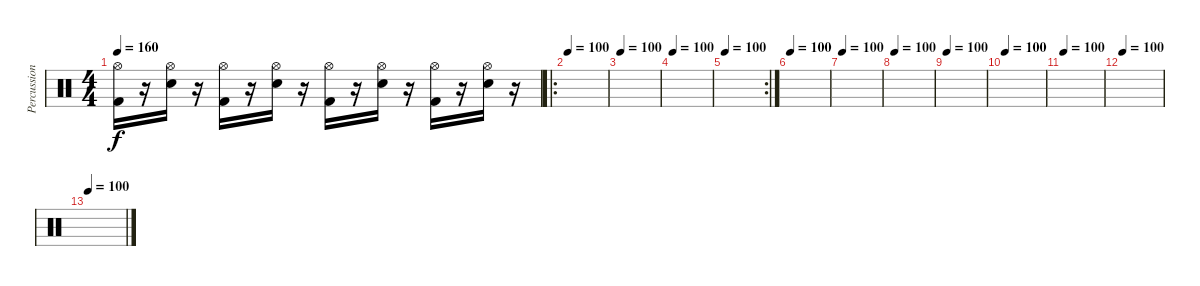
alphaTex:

\track ("Percussions" "Percussion") {instrument percussion}
\staff {score}
\articulation defaults
\ts (4 4)
\tempo 160
\clef neutral
\ks c
("Kick (hit) 2" "Hi-Hat (open)").16{dy f} r.16 ("Electric Snare (hit)" "Hi-Hat (open)").16 r.16 ("Kick (hit) 2" "Hi-Hat (open)").16 r.16 ("Electric Snare (hit)" "Hi-Hat (open)").16 r.16 ("Kick (hit) 2" "Hi-Hat (open)").16 r.16 ("Electric Snare (hit)" "Hi-Hat (open)").16 r.16 ("Kick (hit) 2" "Hi-Hat (open)").16 r.16 ("Electric Snare (hit)" "Hi-Hat (open)").16 r.16 |
\ro
\tempo 100
|
\tempo 100
|
\tempo 100
|
\rc 2
\tempo 100
|
\tempo 100
|
\tempo 100
|
\tempo 100
|
\tempo 100
|
\tempo 100
|
\tempo 100
|
\tempo 100
|
\tempo 100
